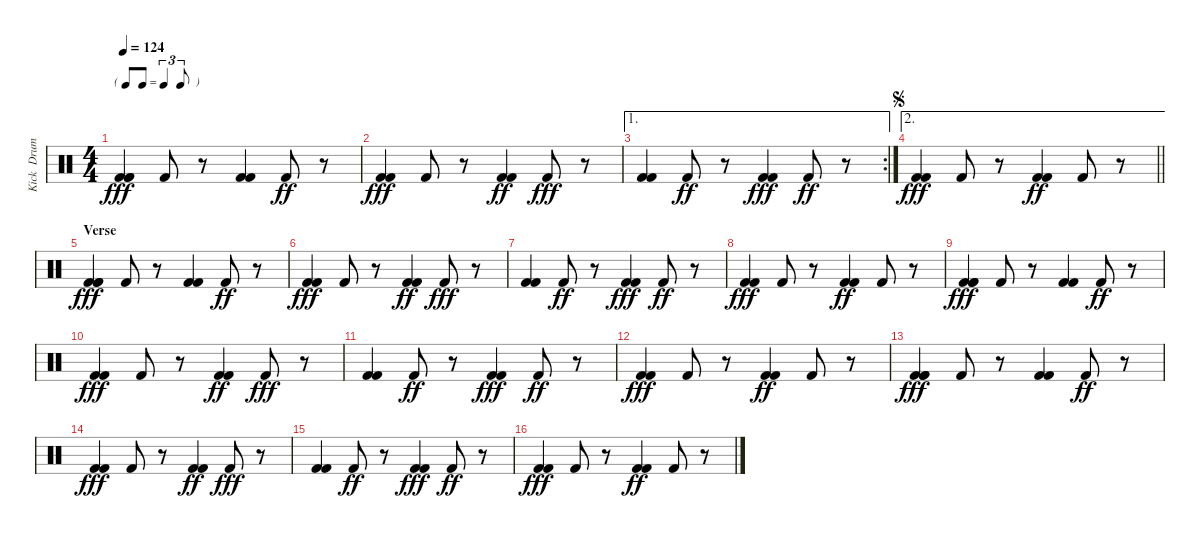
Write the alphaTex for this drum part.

\track ("Kick  Drum" "Kick  Drum") {instrument percussion}
\staff {score}
\articulation defaults
\ts (4 4)
\tf triplet8th
\tempo 124
\clef neutral
\ks c
("Kick (hit) 2" "Kick (hit) 2" "Kick (hit) 2").4{dy fff} "Kick (hit) 2".8 r.8 ("Kick (hit) 2" "Kick (hit) 2").4 "Kick (hit) 2".8{dy ff} r.8 |
("Kick (hit) 2" "Kick (hit) 2").4{dy fff} "Kick (hit) 2".8 r.8 ("Kick (hit) 2" "Kick (hit) 2").4{dy ff} "Kick (hit) 2".8{dy fff} r.8 |
\ae 1
\rc 2
("Kick (hit) 2" "Kick (hit) 2").4 "Kick (hit) 2".8{dy ff} r.8 ("Kick (hit) 2" "Kick (hit) 2").4{dy fff} "Kick (hit) 2".8{dy ff} r.8 |
\ae 2
\jump segno
\barLineRight lightlight
("Kick (hit) 2" "Kick (hit) 2").4{dy fff} "Kick (hit) 2".8 r.8 ("Kick (hit) 2" "Kick (hit) 2").4{dy ff} "Kick (hit) 2".8 r.8 |
\section ("" "Verse")
("Kick (hit) 2" "Kick (hit) 2" "Kick (hit) 2").4{dy fff} "Kick (hit) 2".8 r.8 ("Kick (hit) 2" "Kick (hit) 2").4 "Kick (hit) 2".8{dy ff} r.8 |
("Kick (hit) 2" "Kick (hit) 2").4{dy fff} "Kick (hit) 2".8 r.8 ("Kick (hit) 2" "Kick (hit) 2").4{dy ff} "Kick (hit) 2".8{dy fff} r.8 |
("Kick (hit) 2" "Kick (hit) 2").4 "Kick (hit) 2".8{dy ff} r.8 ("Kick (hit) 2" "Kick (hit) 2").4{dy fff} "Kick (hit) 2".8{dy ff} r.8 |
("Kick (hit) 2" "Kick (hit) 2").4{dy fff} "Kick (hit) 2".8 r.8 ("Kick (hit) 2" "Kick (hit) 2").4{dy ff} "Kick (hit) 2".8 r.8 |
("Kick (hit) 2" "Kick (hit) 2" "Kick (hit) 2").4{dy fff} "Kick (hit) 2".8 r.8 ("Kick (hit) 2" "Kick (hit) 2").4 "Kick (hit) 2".8{dy ff} r.8 |
("Kick (hit) 2" "Kick (hit) 2").4{dy fff} "Kick (hit) 2".8 r.8 ("Kick (hit) 2" "Kick (hit) 2").4{dy ff} "Kick (hit) 2".8{dy fff} r.8 |
("Kick (hit) 2" "Kick (hit) 2").4 "Kick (hit) 2".8{dy ff} r.8 ("Kick (hit) 2" "Kick (hit) 2").4{dy fff} "Kick (hit) 2".8{dy ff} r.8 |
("Kick (hit) 2" "Kick (hit) 2").4{dy fff} "Kick (hit) 2".8 r.8 ("Kick (hit) 2" "Kick (hit) 2").4{dy ff} "Kick (hit) 2".8 r.8 |
("Kick (hit) 2" "Kick (hit) 2" "Kick (hit) 2").4{dy fff} "Kick (hit) 2".8 r.8 ("Kick (hit) 2" "Kick (hit) 2").4 "Kick (hit) 2".8{dy ff} r.8 |
("Kick (hit) 2" "Kick (hit) 2").4{dy fff} "Kick (hit) 2".8 r.8 ("Kick (hit) 2" "Kick (hit) 2").4{dy ff} "Kick (hit) 2".8{dy fff} r.8 |
("Kick (hit) 2" "Kick (hit) 2").4 "Kick (hit) 2".8{dy ff} r.8 ("Kick (hit) 2" "Kick (hit) 2").4{dy fff} "Kick (hit) 2".8{dy ff} r.8 |
("Kick (hit) 2" "Kick (hit) 2").4{dy fff} "Kick (hit) 2".8 r.8 ("Kick (hit) 2" "Kick (hit) 2").4{dy ff} "Kick (hit) 2".8 r.8
